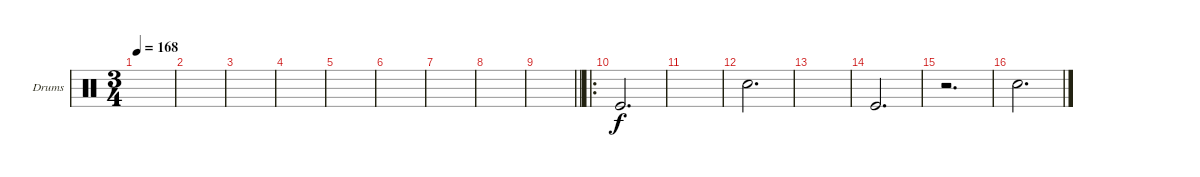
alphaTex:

\defaultSystemsLayout 4
\bracketExtendMode groupsimilarinstruments
\firstSystemTrackNameOrientation horizontal
\otherSystemsTrackNameOrientation horizontal
\track ("Drumkit" "Drums") {instrument percussion}
\staff {score}
\articulation defaults
\ts (3 4)
\tempo 168
\clef neutral
\scale
0.333333
\ks c
|
\scale
0.333333 |
\scale
0.333333 |
\scale
0.333333 |
\scale
0.333333 |
\scale
0.333333 |
\scale
0.333333 |
\scale
0.333333 |
\scale
0.311111
\barLineRight lightlight
|
\ro
\scale
0.377778 "Kick (hit)".2{d} |
\scale
0.311111 |
\scale
0.333333 "Snare (hit) 2".2{d} |
\scale
0.333333 |
\scale
0.333333 "Kick (hit)".2{d} |
\scale
0.321839 r.2{d} |
\scale
0.321839 "Snare (hit) 2".2{d}
